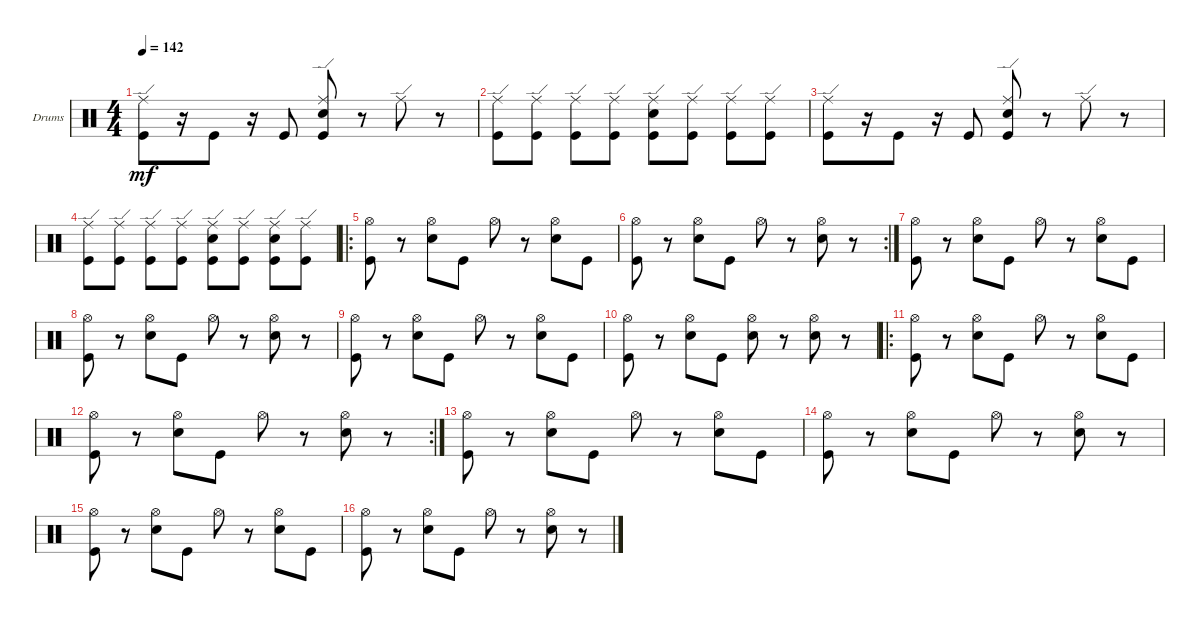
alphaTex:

\bracketExtendMode groupsimilarinstruments
\firstSystemTrackNameOrientation horizontal
\otherSystemsTrackNameOrientation horizontal
\track ("Drumkit" "Drums") {instrument percussion}
\staff {score}
\articulation defaults
\ts (4 4)
\tempo 142
\clef neutral
\ks c
("Kick (hit)" "Ride (edge)").8{dy mf} r.16 "Kick (hit)".8 r.16 "Kick (hit)".8 ("Kick (hit)" "Snare (hit) 2" "Ride (edge)").8 r.8 "Ride (edge)".8 r.8 |
("Kick (hit)" "Ride (edge)").8 ("Kick (hit)" "Ride (edge)").8 ("Kick (hit)" "Ride (edge)").8 ("Kick (hit)" "Ride (edge)").8 ("Kick (hit)" "Ride (edge)" "Snare (hit) 2").8 ("Kick (hit)" "Ride (edge)").8 ("Kick (hit)" "Ride (edge)").8 ("Kick (hit)" "Ride (edge)").8 |
("Kick (hit)" "Ride (edge)").8 r.16 "Kick (hit)".8 r.16 "Kick (hit)".8 ("Kick (hit)" "Snare (hit) 2" "Ride (edge)").8 r.8 "Ride (edge)".8 r.8 |
("Kick (hit)" "Ride (edge)").8 ("Kick (hit)" "Ride (edge)").8 ("Kick (hit)" "Ride (edge)").8 ("Kick (hit)" "Ride (edge)").8 ("Kick (hit)" "Ride (edge)" "Snare (hit) 2").8 ("Kick (hit)" "Ride (edge)").8 ("Kick (hit)" "Ride (edge)" "Snare (hit) 2").8 ("Kick (hit)" "Ride (edge)").8 |
\ro
("Kick (hit)" "Hi-Hat (open)").8 r.8 ("Snare (hit) 2" "Hi-Hat (open)").8 "Kick (hit)".8 "Hi-Hat (open)".8 r.8 ("Snare (hit) 2" "Hi-Hat (open)").8 "Kick (hit)".8 |
\rc 2
("Kick (hit)" "Hi-Hat (open)").8 r.8 ("Snare (hit) 2" "Hi-Hat (open)").8 "Kick (hit)".8 "Hi-Hat (open)".8 r.8 ("Snare (hit) 2" "Hi-Hat (open)").8 r.8 |
("Kick (hit)" "Hi-Hat (open)").8 r.8 ("Snare (hit) 2" "Hi-Hat (open)").8 "Kick (hit)".8 "Hi-Hat (open)".8 r.8 ("Snare (hit) 2" "Hi-Hat (open)").8 "Kick (hit)".8 |
("Kick (hit)" "Hi-Hat (open)").8 r.8 ("Snare (hit) 2" "Hi-Hat (open)").8 "Kick (hit)".8 "Hi-Hat (open)".8 r.8 ("Snare (hit) 2" "Hi-Hat (open)").8 r.8 |
("Kick (hit)" "Hi-Hat (open)").8 r.8 ("Snare (hit) 2" "Hi-Hat (open)").8 "Kick (hit)".8 "Hi-Hat (open)".8 r.8 ("Snare (hit) 2" "Hi-Hat (open)").8 "Kick (hit)".8 |
("Kick (hit)" "Hi-Hat (open)").8 r.8 ("Snare (hit) 2" "Hi-Hat (open)").8 "Kick (hit)".8 ("Hi-Hat (open)" "Snare (hit) 2").8 r.8 ("Snare (hit) 2" "Hi-Hat (open)").8 r.8 |
\ro
("Kick (hit)" "Hi-Hat (open)").8 r.8 ("Snare (hit) 2" "Hi-Hat (open)").8 "Kick (hit)".8 "Hi-Hat (open)".8 r.8 ("Snare (hit) 2" "Hi-Hat (open)").8 "Kick (hit)".8 |
\rc 2
("Kick (hit)" "Hi-Hat (open)").8 r.8 ("Snare (hit) 2" "Hi-Hat (open)").8 "Kick (hit)".8 "Hi-Hat (open)".8 r.8 ("Snare (hit) 2" "Hi-Hat (open)").8 r.8 |
("Kick (hit)" "Hi-Hat (open)").8 r.8 ("Snare (hit) 2" "Hi-Hat (open)").8 "Kick (hit)".8 "Hi-Hat (open)".8 r.8 ("Snare (hit) 2" "Hi-Hat (open)").8 "Kick (hit)".8 |
("Kick (hit)" "Hi-Hat (open)").8 r.8 ("Snare (hit) 2" "Hi-Hat (open)").8 "Kick (hit)".8 "Hi-Hat (open)".8 r.8 ("Snare (hit) 2" "Hi-Hat (open)").8 r.8 |
("Kick (hit)" "Hi-Hat (open)").8 r.8 ("Snare (hit) 2" "Hi-Hat (open)").8 "Kick (hit)".8 "Hi-Hat (open)".8 r.8 ("Snare (hit) 2" "Hi-Hat (open)").8 "Kick (hit)".8 |
("Kick (hit)" "Hi-Hat (open)").8 r.8 ("Snare (hit) 2" "Hi-Hat (open)").8 "Kick (hit)".8 "Hi-Hat (open)".8 r.8 ("Snare (hit) 2" "Hi-Hat (open)").8 r.8
